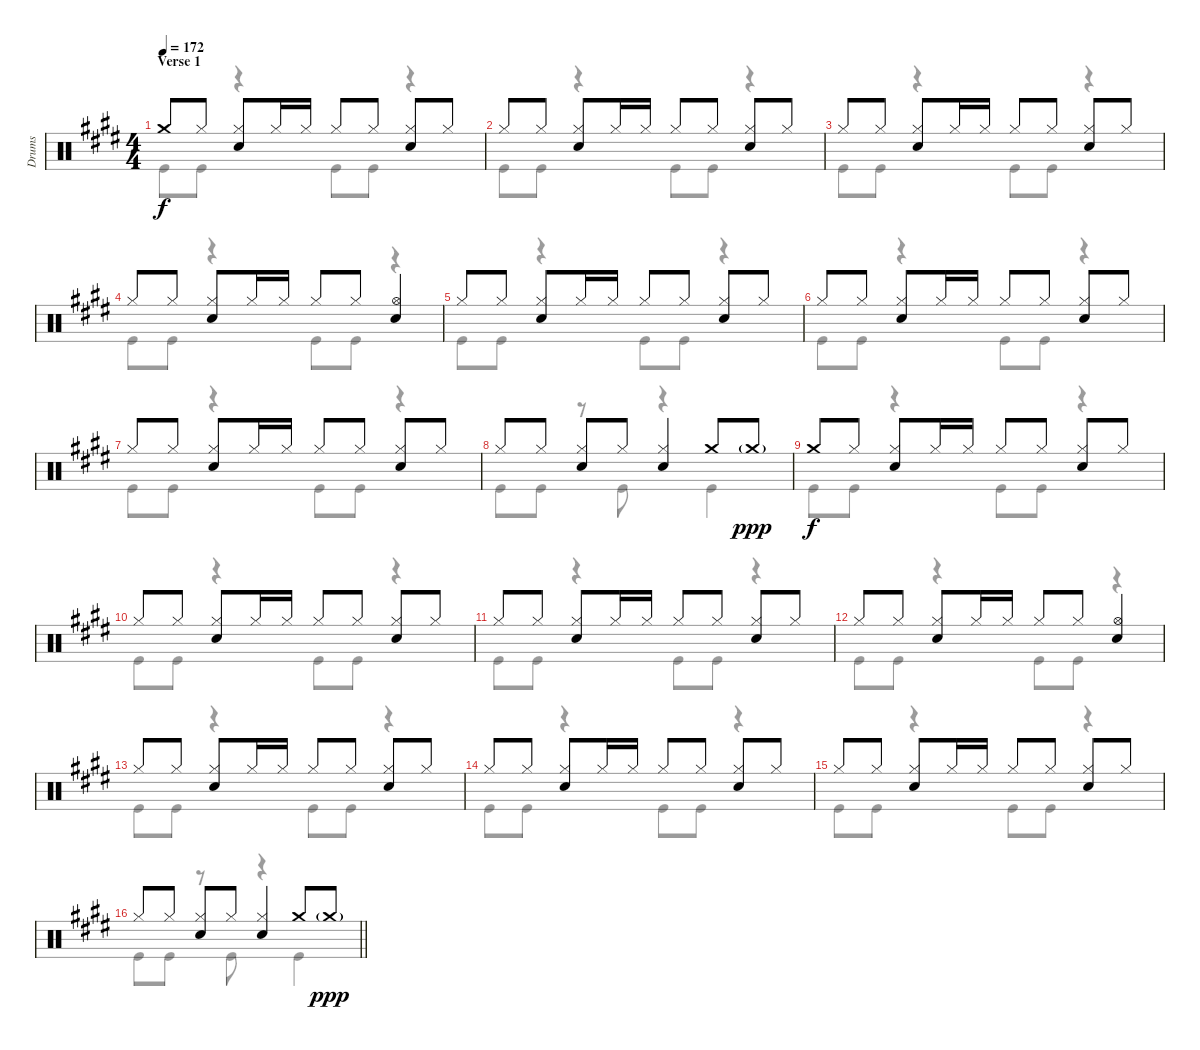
\track ("Drums" "Drums") {instrument percussion}
\staff {score}
\articulation defaults
\voice
\ts (4 4)
\section ("" "Verse 1")
\tempo 172
\clef neutral
\ks e "Crash medium (hit)".8{dy f} "Hi-Hat (closed)".8
("Hi-Hat (closed)" "Electric Snare (hit)").8 "Hi-Hat (closed)".16 "Hi-Hat (closed)".16 "Hi-Hat (closed)".8 "Hi-Hat (closed)".8 ("Hi-Hat (closed)" "Electric Snare (hit)").8 "Hi-Hat (closed)".8 |
"Hi-Hat (closed)".8 "Hi-Hat (closed)".8 ("Hi-Hat (closed)" "Electric Snare (hit)").8 "Hi-Hat (closed)".16 "Hi-Hat (closed)".16 "Hi-Hat (closed)".8 "Hi-Hat (closed)".8 ("Hi-Hat (closed)" "Electric Snare (hit)").8 "Hi-Hat (closed)".8 |
"Hi-Hat (closed)".8 "Hi-Hat (closed)".8 ("Hi-Hat (closed)" "Electric Snare (hit)").8 "Hi-Hat (closed)".16 "Hi-Hat (closed)".16 "Hi-Hat (closed)".8 "Hi-Hat (closed)".8 ("Hi-Hat (closed)" "Electric Snare (hit)").8 "Hi-Hat (closed)".8 |
"Hi-Hat (closed)".8 "Hi-Hat (closed)".8 ("Hi-Hat (closed)" "Electric Snare (hit)").8 "Hi-Hat (closed)".16 "Hi-Hat (closed)".16 "Hi-Hat (closed)".8 "Hi-Hat (closed)".8 ("Hi-Hat (open)" "Electric Snare (hit)").4 |
"Hi-Hat (closed)".8 "Hi-Hat (closed)".8 ("Hi-Hat (closed)" "Electric Snare (hit)").8 "Hi-Hat (closed)".16 "Hi-Hat (closed)".16 "Hi-Hat (closed)".8 "Hi-Hat (closed)".8 ("Hi-Hat (closed)" "Electric Snare (hit)").8 "Hi-Hat (closed)".8 |
"Hi-Hat (closed)".8 "Hi-Hat (closed)".8 ("Hi-Hat (closed)" "Electric Snare (hit)").8 "Hi-Hat (closed)".16 "Hi-Hat (closed)".16 "Hi-Hat (closed)".8 "Hi-Hat (closed)".8 ("Hi-Hat (closed)" "Electric Snare (hit)").8 "Hi-Hat (closed)".8 |
"Hi-Hat (closed)".8 "Hi-Hat (closed)".8 ("Hi-Hat (closed)" "Electric Snare (hit)").8 "Hi-Hat (closed)".16 "Hi-Hat (closed)".16 "Hi-Hat (closed)".8 "Hi-Hat (closed)".8 ("Hi-Hat (closed)" "Electric Snare (hit)").8 "Hi-Hat (closed)".8 |
"Hi-Hat (closed)".8 "Hi-Hat (closed)".8 ("Hi-Hat (closed)" "Electric Snare (hit)").8 "Hi-Hat (closed)".8 ("Hi-Hat (closed)" "Electric Snare (hit)").4 "Crash medium (hit)".8 "Crash medium (hit)"{g}.8{dy ppp} |
"Crash medium (hit)".8{dy f} "Hi-Hat (closed)".8 ("Hi-Hat (closed)" "Electric Snare (hit)").8 "Hi-Hat (closed)".16 "Hi-Hat (closed)".16 "Hi-Hat (closed)".8 "Hi-Hat (closed)".8 ("Hi-Hat (closed)" "Electric Snare (hit)").8 "Hi-Hat (closed)".8 |
"Hi-Hat (closed)".8 "Hi-Hat (closed)".8 ("Hi-Hat (closed)" "Electric Snare (hit)").8 "Hi-Hat (closed)".16 "Hi-Hat (closed)".16 "Hi-Hat (closed)".8 "Hi-Hat (closed)".8 ("Hi-Hat (closed)" "Electric Snare (hit)").8 "Hi-Hat (closed)".8 |
"Hi-Hat (closed)".8 "Hi-Hat (closed)".8 ("Hi-Hat (closed)" "Electric Snare (hit)").8 "Hi-Hat (closed)".16 "Hi-Hat (closed)".16 "Hi-Hat (closed)".8 "Hi-Hat (closed)".8 ("Hi-Hat (closed)" "Electric Snare (hit)").8 "Hi-Hat (closed)".8 |
"Hi-Hat (closed)".8 "Hi-Hat (closed)".8 ("Hi-Hat (closed)" "Electric Snare (hit)").8 "Hi-Hat (closed)".16 "Hi-Hat (closed)".16 "Hi-Hat (closed)".8 "Hi-Hat (closed)".8 ("Hi-Hat (open)" "Electric Snare (hit)").4 |
"Hi-Hat (closed)".8 "Hi-Hat (closed)".8 ("Hi-Hat (closed)" "Electric Snare (hit)").8 "Hi-Hat (closed)".16 "Hi-Hat (closed)".16 "Hi-Hat (closed)".8 "Hi-Hat (closed)".8 ("Hi-Hat (closed)" "Electric Snare (hit)").8 "Hi-Hat (closed)".8 |
"Hi-Hat (closed)".8 "Hi-Hat (closed)".8 ("Hi-Hat (closed)" "Electric Snare (hit)").8 "Hi-Hat (closed)".16 "Hi-Hat (closed)".16 "Hi-Hat (closed)".8 "Hi-Hat (closed)".8 ("Hi-Hat (closed)" "Electric Snare (hit)").8 "Hi-Hat (closed)".8 |
"Hi-Hat (closed)".8 "Hi-Hat (closed)".8 ("Hi-Hat (closed)" "Electric Snare (hit)").8 "Hi-Hat (closed)".16 "Hi-Hat (closed)".16 "Hi-Hat (closed)".8 "Hi-Hat (closed)".8 ("Hi-Hat (closed)" "Electric Snare (hit)").8 "Hi-Hat (closed)".8 |
\barLineRight lightlight "Hi-Hat (closed)".8 "Hi-Hat (closed)".8
("Hi-Hat (closed)" "Electric Snare (hit)").8 "Hi-Hat (closed)".8 ("Hi-Hat (closed)" "Electric Snare (hit)").4 "Crash medium (hit)".8 "Crash medium (hit)"{g}.8{dy ppp}
\voice
\clef neutral
\ottava regular
\simile none
\ks e "Kick (hit)".8{dy f} "Kick (hit)".8
r.4 "Kick (hit)".8 "Kick (hit)".8 r.4 |
"Kick (hit)".8 "Kick (hit)".8 r.4 "Kick (hit)".8 "Kick (hit)".8 r.4 |
"Kick (hit)".8 "Kick (hit)".8 r.4 "Kick (hit)".8 "Kick (hit)".8 r.4 |
"Kick (hit)".8 "Kick (hit)".8 r.4 "Kick (hit)".8 "Kick (hit)".8 r.4 |
"Kick (hit)".8 "Kick (hit)".8 r.4 "Kick (hit)".8 "Kick (hit)".8 r.4 |
"Kick (hit)".8 "Kick (hit)".8 r.4 "Kick (hit)".8 "Kick (hit)".8 r.4 |
"Kick (hit)".8 "Kick (hit)".8 r.4 "Kick (hit)".8 "Kick (hit)".8 r.4 |
"Kick (hit)".8 "Kick (hit)".8 r.8 "Kick (hit)".8 r.4 "Kick (hit)".4 |
"Kick (hit)".8 "Kick (hit)".8 r.4 "Kick (hit)".8 "Kick (hit)".8 r.4 |
"Kick (hit)".8 "Kick (hit)".8 r.4 "Kick (hit)".8 "Kick (hit)".8 r.4 |
"Kick (hit)".8 "Kick (hit)".8 r.4 "Kick (hit)".8 "Kick (hit)".8 r.4 |
"Kick (hit)".8 "Kick (hit)".8 r.4 "Kick (hit)".8 "Kick (hit)".8 r.4 |
"Kick (hit)".8 "Kick (hit)".8 r.4 "Kick (hit)".8 "Kick (hit)".8 r.4 |
"Kick (hit)".8 "Kick (hit)".8 r.4 "Kick (hit)".8 "Kick (hit)".8 r.4 |
"Kick (hit)".8 "Kick (hit)".8 r.4 "Kick (hit)".8 "Kick (hit)".8 r.4 |
\barLineRight lightlight "Kick (hit)".8 "Kick (hit)".8
r.8 "Kick (hit)".8 r.4 "Kick (hit)".4
